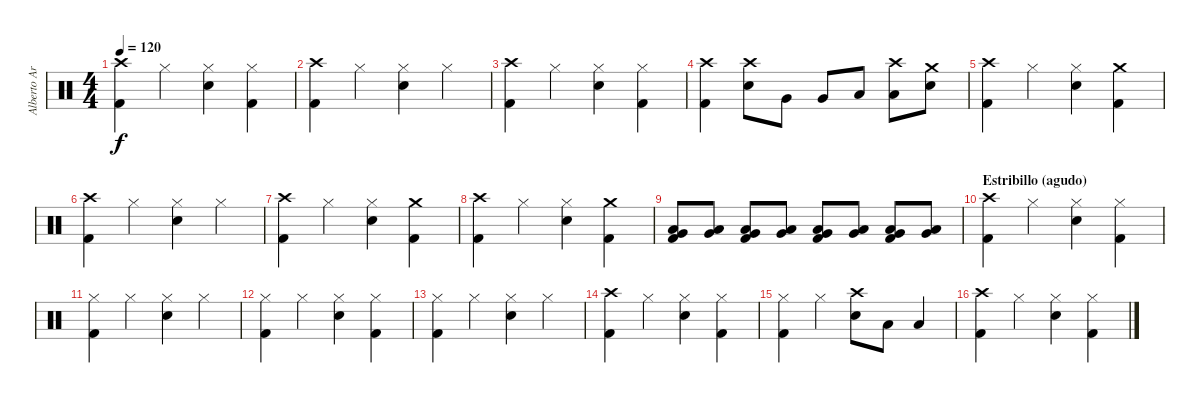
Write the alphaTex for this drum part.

\track ("Alberto Ardines (Batería)" "Alberto Ar") {instrument percussion}
\staff {score}
\articulation defaults
\ts (4 4)
\tempo 120
\clef neutral
\ks c
("Crash high (hit)" "Kick (hit) 2").4{dy f} "Hi-Hat (closed)".4 ("Hi-Hat (closed)" "Electric Snare (hit)").4 ("Hi-Hat (closed)" "Kick (hit) 2").4 |
("Crash high (hit)" "Kick (hit) 2").4 "Hi-Hat (closed)".4 ("Hi-Hat (closed)" "Electric Snare (hit)").4 "Hi-Hat (closed)".4 |
("Crash high (hit)" "Kick (hit) 2").4 "Hi-Hat (closed)".4 ("Hi-Hat (closed)" "Electric Snare (hit)").4 ("Hi-Hat (closed)" "Kick (hit) 2").4 |
("Crash high (hit)" "Kick (hit) 2").4 ("Crash high (hit)" "Electric Snare (hit)").8 "Very Low Tom (hit)".8 "Very Low Tom (hit)".8 "Low Floor Tom (hit)".8 ("Low Floor Tom (hit)" "Crash high (hit)").8 ("Crash medium (hit)" "Electric Snare (hit)").8 |
("Crash high (hit)" "Kick (hit) 2").4 "Hi-Hat (closed)".4 ("Hi-Hat (closed)" "Electric Snare (hit)").4 ("Crash medium (hit)" "Kick (hit) 2").4 |
("Crash high (hit)" "Kick (hit) 2").4 "Hi-Hat (closed)".4 ("Hi-Hat (closed)" "Electric Snare (hit)").4 "Hi-Hat (closed)".4 |
("Crash high (hit)" "Kick (hit) 2").4 "Hi-Hat (closed)".4 ("Hi-Hat (closed)" "Electric Snare (hit)").4 ("Crash medium (hit)" "Kick (hit) 2").4 |
("Crash high (hit)" "Kick (hit) 2").4 "Hi-Hat (closed)".4 ("Hi-Hat (closed)" "Electric Snare (hit)").4 ("Crash medium (hit)" "Kick (hit) 2").4 |
("Low Floor Tom (hit)" "Very Low Tom (hit)" "Kick (hit) 2").8 ("Low Floor Tom (hit)" "Very Low Tom (hit)").8 ("Low Floor Tom (hit)" "Very Low Tom (hit)" "Kick (hit) 2").8 ("Low Floor Tom (hit)" "Very Low Tom (hit)").8 ("Low Floor Tom (hit)" "Very Low Tom (hit)" "Kick (hit) 2").8 ("Low Floor Tom (hit)" "Very Low Tom (hit)").8 ("Low Floor Tom (hit)" "Very Low Tom (hit)" "Kick (hit) 2").8 ("Low Floor Tom (hit)" "Very Low Tom (hit)").8 |
\section ("" "Estribillo (agudo)")
("Crash high (hit)" "Kick (hit) 2").4 "Hi-Hat (closed)".4 ("Hi-Hat (closed)" "Electric Snare (hit)").4 ("Hi-Hat (closed)" "Kick (hit) 2").4 |
("Hi-Hat (closed)" "Kick (hit) 2").4 "Hi-Hat (closed)".4 ("Hi-Hat (closed)" "Electric Snare (hit)").4 "Hi-Hat (closed)".4 |
("Hi-Hat (closed)" "Kick (hit) 2").4 "Hi-Hat (closed)".4 ("Hi-Hat (closed)" "Electric Snare (hit)").4 ("Hi-Hat (closed)" "Kick (hit) 2").4 |
("Hi-Hat (closed)" "Kick (hit) 2").4 "Hi-Hat (closed)".4 ("Hi-Hat (closed)" "Electric Snare (hit)").4 "Hi-Hat (closed)".4 |
("Crash high (hit)" "Kick (hit) 2").4 "Hi-Hat (closed)".4 ("Hi-Hat (closed)" "Electric Snare (hit)").4 ("Hi-Hat (closed)" "Kick (hit) 2").4 |
("Hi-Hat (closed)" "Kick (hit) 2").4 "Hi-Hat (closed)".4 ("Crash high (hit)" "Electric Snare (hit)").8 "Low Floor Tom (hit)".8 "Low Floor Tom (hit)".4 |
("Crash high (hit)" "Kick (hit) 2").4 "Hi-Hat (closed)".4 ("Hi-Hat (closed)" "Electric Snare (hit)").4 ("Hi-Hat (closed)" "Kick (hit) 2").4
